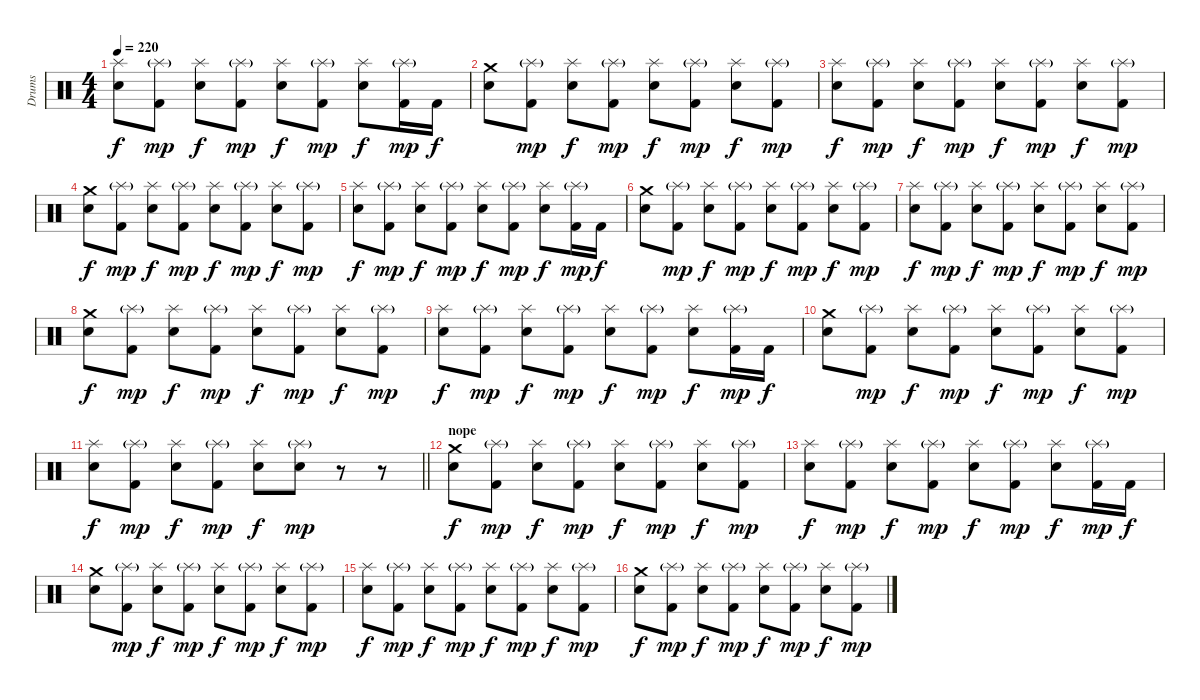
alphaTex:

\track ("Drums" "Drums") {instrument percussion}
\staff {score}
\articulation defaults
\ts (4 4)
\tempo 220
\clef neutral
\ks c
("Splash (hit)" "Electric Snare (hit)").8{dy f} ("Splash (hit)"{g} "Kick (hit) 2").8{dy mp} ("Splash (hit)" "Electric Snare (hit)").8{dy f} ("Splash (hit)"{g} "Kick (hit) 2").8{dy mp} ("Splash (hit)" "Electric Snare (hit)").8{dy f} ("Splash (hit)"{g} "Kick (hit) 2").8{dy mp} ("Splash (hit)" "Electric Snare (hit)").8{dy f} ("Splash (hit)"{g} "Kick (hit) 2").16{dy mp} "Kick (hit) 2".16{dy f} |
("Crash medium (hit)" "Electric Snare (hit)").8 ("Splash (hit)"{g} "Kick (hit) 2").8{dy mp} ("Splash (hit)" "Electric Snare (hit)").8{dy f} ("Splash (hit)"{g} "Kick (hit) 2").8{dy mp} ("Splash (hit)" "Electric Snare (hit)").8{dy f} ("Splash (hit)"{g} "Kick (hit) 2").8{dy mp} ("Splash (hit)" "Electric Snare (hit)").8{dy f} ("Splash (hit)"{g} "Kick (hit) 2").8{dy mp} |
("Splash (hit)" "Electric Snare (hit)").8{dy f} ("Splash (hit)"{g} "Kick (hit) 2").8{dy mp} ("Splash (hit)" "Electric Snare (hit)").8{dy f} ("Splash (hit)"{g} "Kick (hit) 2").8{dy mp} ("Splash (hit)" "Electric Snare (hit)").8{dy f} ("Splash (hit)"{g} "Kick (hit) 2").8{dy mp} ("Splash (hit)" "Electric Snare (hit)").8{dy f} ("Splash (hit)"{g} "Kick (hit) 2").8{dy mp} |
("Crash medium (hit)" "Electric Snare (hit)").8{dy f} ("Splash (hit)"{g} "Kick (hit) 2").8{dy mp} ("Splash (hit)" "Electric Snare (hit)").8{dy f} ("Splash (hit)"{g} "Kick (hit) 2").8{dy mp} ("Splash (hit)" "Electric Snare (hit)").8{dy f} ("Splash (hit)"{g} "Kick (hit) 2").8{dy mp} ("Splash (hit)" "Electric Snare (hit)").8{dy f} ("Splash (hit)"{g} "Kick (hit) 2").8{dy mp} |
("Splash (hit)" "Electric Snare (hit)").8{dy f} ("Splash (hit)"{g} "Kick (hit) 2").8{dy mp} ("Splash (hit)" "Electric Snare (hit)").8{dy f} ("Splash (hit)"{g} "Kick (hit) 2").8{dy mp} ("Splash (hit)" "Electric Snare (hit)").8{dy f} ("Splash (hit)"{g} "Kick (hit) 2").8{dy mp} ("Splash (hit)" "Electric Snare (hit)").8{dy f} ("Splash (hit)"{g} "Kick (hit) 2").16{dy mp} "Kick (hit) 2".16{dy f} |
("Crash medium (hit)" "Electric Snare (hit)").8 ("Splash (hit)"{g} "Kick (hit) 2").8{dy mp} ("Splash (hit)" "Electric Snare (hit)").8{dy f} ("Splash (hit)"{g} "Kick (hit) 2").8{dy mp} ("Splash (hit)" "Electric Snare (hit)").8{dy f} ("Splash (hit)"{g} "Kick (hit) 2").8{dy mp} ("Splash (hit)" "Electric Snare (hit)").8{dy f} ("Splash (hit)"{g} "Kick (hit) 2").8{dy mp} |
("Splash (hit)" "Electric Snare (hit)").8{dy f} ("Splash (hit)"{g} "Kick (hit) 2").8{dy mp} ("Splash (hit)" "Electric Snare (hit)").8{dy f} ("Splash (hit)"{g} "Kick (hit) 2").8{dy mp} ("Splash (hit)" "Electric Snare (hit)").8{dy f} ("Splash (hit)"{g} "Kick (hit) 2").8{dy mp} ("Splash (hit)" "Electric Snare (hit)").8{dy f} ("Splash (hit)"{g} "Kick (hit) 2").8{dy mp} |
("Crash medium (hit)" "Electric Snare (hit)").8{dy f} ("Splash (hit)"{g} "Kick (hit) 2").8{dy mp} ("Splash (hit)" "Electric Snare (hit)").8{dy f} ("Splash (hit)"{g} "Kick (hit) 2").8{dy mp} ("Splash (hit)" "Electric Snare (hit)").8{dy f} ("Splash (hit)"{g} "Kick (hit) 2").8{dy mp} ("Splash (hit)" "Electric Snare (hit)").8{dy f} ("Splash (hit)"{g} "Kick (hit) 2").8{dy mp} |
("Splash (hit)" "Electric Snare (hit)").8{dy f} ("Splash (hit)"{g} "Kick (hit) 2").8{dy mp} ("Splash (hit)" "Electric Snare (hit)").8{dy f} ("Splash (hit)"{g} "Kick (hit) 2").8{dy mp} ("Splash (hit)" "Electric Snare (hit)").8{dy f} ("Splash (hit)"{g} "Kick (hit) 2").8{dy mp} ("Splash (hit)" "Electric Snare (hit)").8{dy f} ("Splash (hit)"{g} "Kick (hit) 2").16{dy mp} "Kick (hit) 2".16{dy f} |
("Crash medium (hit)" "Electric Snare (hit)").8 ("Splash (hit)"{g} "Kick (hit) 2").8{dy mp} ("Splash (hit)" "Electric Snare (hit)").8{dy f} ("Splash (hit)"{g} "Kick (hit) 2").8{dy mp} ("Splash (hit)" "Electric Snare (hit)").8{dy f} ("Splash (hit)"{g} "Kick (hit) 2").8{dy mp} ("Splash (hit)" "Electric Snare (hit)").8{dy f} ("Splash (hit)"{g} "Kick (hit) 2").8{dy mp} |
\barLineRight lightlight
("Splash (hit)" "Electric Snare (hit)").8{dy f} ("Splash (hit)"{g} "Kick (hit) 2").8{dy mp} ("Splash (hit)" "Electric Snare (hit)").8{dy f} ("Splash (hit)"{g} "Kick (hit) 2").8{dy mp} ("Splash (hit)" "Electric Snare (hit)").8{dy f} ("Splash (hit)"{g} "Electric Snare (hit)").8{dy mp} r.8 r.8 |
\section ("" "nope")
("Crash medium (hit)" "Electric Snare (hit)").8{dy f} ("Splash (hit)"{g} "Kick (hit) 2").8{dy mp} ("Splash (hit)" "Electric Snare (hit)").8{dy f} ("Splash (hit)"{g} "Kick (hit) 2").8{dy mp} ("Splash (hit)" "Electric Snare (hit)").8{dy f} ("Splash (hit)"{g} "Kick (hit) 2").8{dy mp} ("Splash (hit)" "Electric Snare (hit)").8{dy f} ("Splash (hit)"{g} "Kick (hit) 2").8{dy mp} |
("Splash (hit)" "Electric Snare (hit)").8{dy f} ("Splash (hit)"{g} "Kick (hit) 2").8{dy mp} ("Splash (hit)" "Electric Snare (hit)").8{dy f} ("Splash (hit)"{g} "Kick (hit) 2").8{dy mp} ("Splash (hit)" "Electric Snare (hit)").8{dy f} ("Splash (hit)"{g} "Kick (hit) 2").8{dy mp} ("Splash (hit)" "Electric Snare (hit)").8{dy f} ("Splash (hit)"{g} "Kick (hit) 2").16{dy mp} "Kick (hit) 2".16{dy f} |
("Crash medium (hit)" "Electric Snare (hit)").8 ("Splash (hit)"{g} "Kick (hit) 2").8{dy mp} ("Splash (hit)" "Electric Snare (hit)").8{dy f} ("Splash (hit)"{g} "Kick (hit) 2").8{dy mp} ("Splash (hit)" "Electric Snare (hit)").8{dy f} ("Splash (hit)"{g} "Kick (hit) 2").8{dy mp} ("Splash (hit)" "Electric Snare (hit)").8{dy f} ("Splash (hit)"{g} "Kick (hit) 2").8{dy mp} |
("Splash (hit)" "Electric Snare (hit)").8{dy f} ("Splash (hit)"{g} "Kick (hit) 2").8{dy mp} ("Splash (hit)" "Electric Snare (hit)").8{dy f} ("Splash (hit)"{g} "Kick (hit) 2").8{dy mp} ("Splash (hit)" "Electric Snare (hit)").8{dy f} ("Splash (hit)"{g} "Kick (hit) 2").8{dy mp} ("Splash (hit)" "Electric Snare (hit)").8{dy f} ("Splash (hit)"{g} "Kick (hit) 2").8{dy mp} |
("Crash medium (hit)" "Electric Snare (hit)").8{dy f} ("Splash (hit)"{g} "Kick (hit) 2").8{dy mp} ("Splash (hit)" "Electric Snare (hit)").8{dy f} ("Splash (hit)"{g} "Kick (hit) 2").8{dy mp} ("Splash (hit)" "Electric Snare (hit)").8{dy f} ("Splash (hit)"{g} "Kick (hit) 2").8{dy mp} ("Splash (hit)" "Electric Snare (hit)").8{dy f} ("Splash (hit)"{g} "Kick (hit) 2").8{dy mp}
